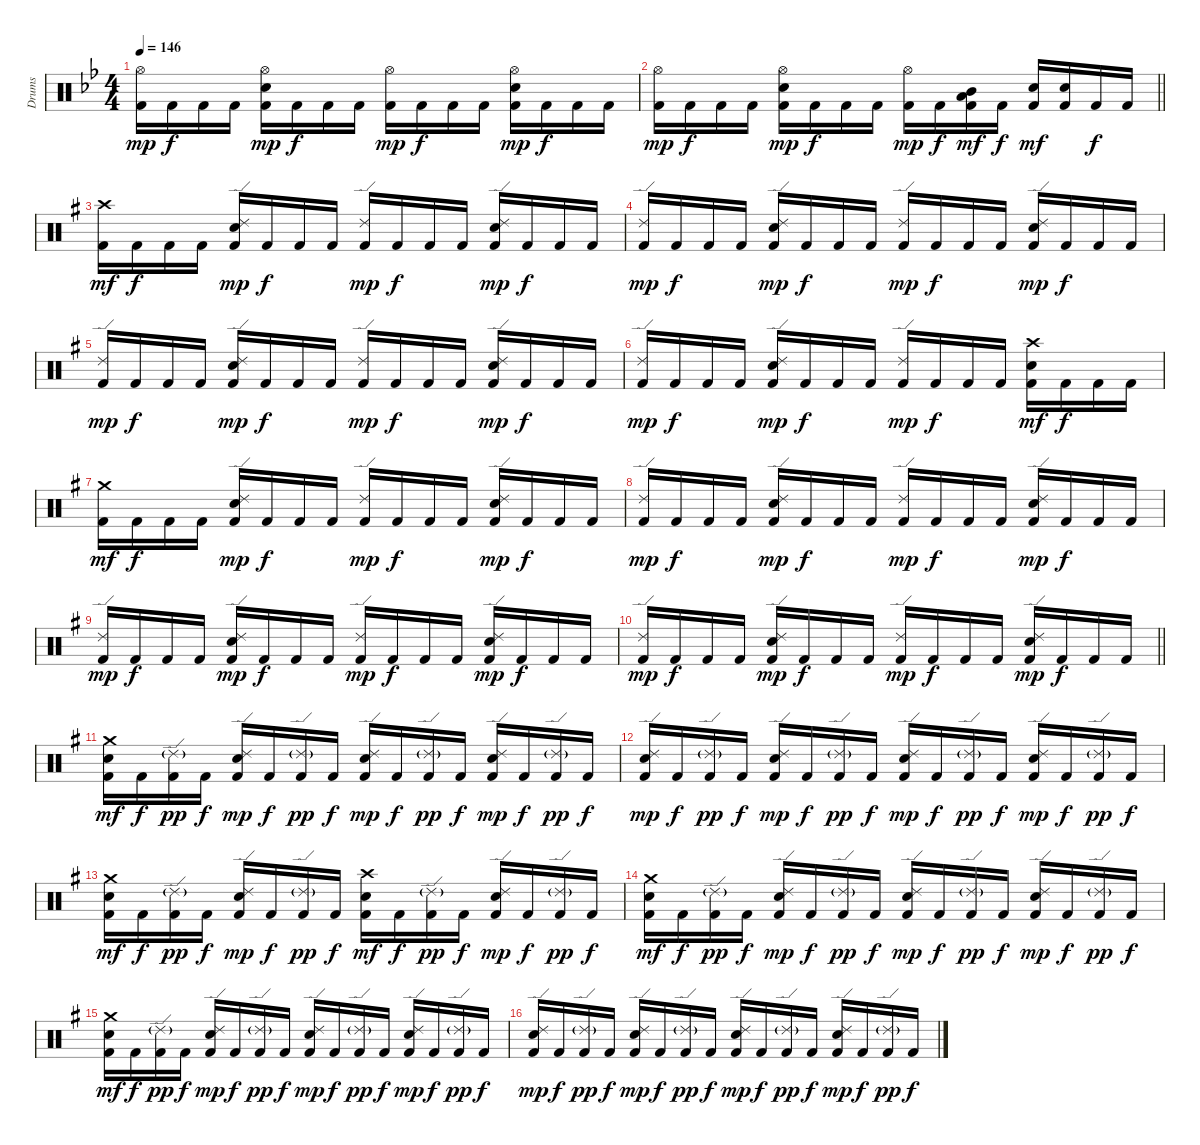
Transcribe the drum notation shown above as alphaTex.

\track ("Drums" "Drums") {instrument percussion}
\staff {score}
\articulation defaults
\ts (4 4)
\tempo 146
\clef neutral
\ks gminor
("Hi-Hat (open)" "Kick (hit) 2").16{dy mp} "Kick (hit) 2".16{dy f} "Kick (hit) 2".16 "Kick (hit) 2".16 ("Hi-Hat (open)" "Electric Snare (hit)" "Kick (hit) 2").16{dy mp} "Kick (hit) 2".16{dy f} "Kick (hit) 2".16 "Kick (hit) 2".16 ("Hi-Hat (open)" "Kick (hit) 2").16{dy mp} "Kick (hit) 2".16{dy f} "Kick (hit) 2".16 "Kick (hit) 2".16 ("Hi-Hat (open)" "Electric Snare (hit)" "Kick (hit) 2").16{dy mp} "Kick (hit) 2".16{dy f} "Kick (hit) 2".16 "Kick (hit) 2".16 |
\barLineRight lightlight
("Hi-Hat (open)" "Kick (hit) 2").16{dy mp} "Kick (hit) 2".16{dy f} "Kick (hit) 2".16 "Kick (hit) 2".16 ("Hi-Hat (open)" "Electric Snare (hit)" "Kick (hit) 2").16{dy mp} "Kick (hit) 2".16{dy f} "Kick (hit) 2".16 "Kick (hit) 2".16 ("Hi-Hat (open)" "Kick (hit) 2").16{dy mp} "Kick (hit) 2".16{dy f} ("Low Tom (hit)" "Mid Tom (hit)" "Kick (hit) 2").16{dy mf} "Kick (hit) 2".16{dy f} ("Electric Snare (hit)" "Kick (hit) 2").16{dy mf} ("Electric Snare (hit)" "Kick (hit) 2").16 "Kick (hit) 2".16{dy f} "Kick (hit) 2".16 |
\section ("" "")
\ks eminor
("Crash high (hit)" "Kick (hit) 2").16{dy mf} "Kick (hit) 2".16{dy f} "Kick (hit) 2".16 "Kick (hit) 2".16 ("Ride (edge) 2" "Electric Snare (hit)" "Kick (hit) 2").16{dy mp} "Kick (hit) 2".16{dy f} "Kick (hit) 2".16 "Kick (hit) 2".16 ("Ride (edge) 2" "Kick (hit) 2").16{dy mp} "Kick (hit) 2".16{dy f} "Kick (hit) 2".16 "Kick (hit) 2".16 ("Ride (edge) 2" "Electric Snare (hit)" "Kick (hit) 2").16{dy mp} "Kick (hit) 2".16{dy f} "Kick (hit) 2".16 "Kick (hit) 2".16 |
("Ride (edge) 2" "Kick (hit) 2").16{dy mp} "Kick (hit) 2".16{dy f} "Kick (hit) 2".16 "Kick (hit) 2".16 ("Ride (edge) 2" "Electric Snare (hit)" "Kick (hit) 2").16{dy mp} "Kick (hit) 2".16{dy f} "Kick (hit) 2".16 "Kick (hit) 2".16 ("Ride (edge) 2" "Kick (hit) 2").16{dy mp} "Kick (hit) 2".16{dy f} "Kick (hit) 2".16 "Kick (hit) 2".16 ("Ride (edge) 2" "Electric Snare (hit)" "Kick (hit) 2").16{dy mp} "Kick (hit) 2".16{dy f} "Kick (hit) 2".16 "Kick (hit) 2".16 |
("Ride (edge) 2" "Kick (hit) 2").16{dy mp} "Kick (hit) 2".16{dy f} "Kick (hit) 2".16 "Kick (hit) 2".16 ("Ride (edge) 2" "Electric Snare (hit)" "Kick (hit) 2").16{dy mp} "Kick (hit) 2".16{dy f} "Kick (hit) 2".16 "Kick (hit) 2".16 ("Ride (edge) 2" "Kick (hit) 2").16{dy mp} "Kick (hit) 2".16{dy f} "Kick (hit) 2".16 "Kick (hit) 2".16 ("Ride (edge) 2" "Electric Snare (hit)" "Kick (hit) 2").16{dy mp} "Kick (hit) 2".16{dy f} "Kick (hit) 2".16 "Kick (hit) 2".16 |
("Ride (edge) 2" "Kick (hit) 2").16{dy mp} "Kick (hit) 2".16{dy f} "Kick (hit) 2".16 "Kick (hit) 2".16 ("Ride (edge) 2" "Electric Snare (hit)" "Kick (hit) 2").16{dy mp} "Kick (hit) 2".16{dy f} "Kick (hit) 2".16 "Kick (hit) 2".16 ("Ride (edge) 2" "Kick (hit) 2").16{dy mp} "Kick (hit) 2".16{dy f} "Kick (hit) 2".16 "Kick (hit) 2".16 ("Crash high (hit)" "Electric Snare (hit)" "Kick (hit) 2").16{dy mf} "Kick (hit) 2".16{dy f} "Kick (hit) 2".16 "Kick (hit) 2".16 |
("Crash medium (hit)" "Kick (hit) 2").16{dy mf} "Kick (hit) 2".16{dy f} "Kick (hit) 2".16 "Kick (hit) 2".16 ("Ride (edge) 2" "Electric Snare (hit)" "Kick (hit) 2").16{dy mp} "Kick (hit) 2".16{dy f} "Kick (hit) 2".16 "Kick (hit) 2".16 ("Ride (edge) 2" "Kick (hit) 2").16{dy mp} "Kick (hit) 2".16{dy f} "Kick (hit) 2".16 "Kick (hit) 2".16 ("Ride (edge) 2" "Electric Snare (hit)" "Kick (hit) 2").16{dy mp} "Kick (hit) 2".16{dy f} "Kick (hit) 2".16 "Kick (hit) 2".16 |
("Ride (edge) 2" "Kick (hit) 2").16{dy mp} "Kick (hit) 2".16{dy f} "Kick (hit) 2".16 "Kick (hit) 2".16 ("Ride (edge) 2" "Electric Snare (hit)" "Kick (hit) 2").16{dy mp} "Kick (hit) 2".16{dy f} "Kick (hit) 2".16 "Kick (hit) 2".16 ("Ride (edge) 2" "Kick (hit) 2").16{dy mp} "Kick (hit) 2".16{dy f} "Kick (hit) 2".16 "Kick (hit) 2".16 ("Ride (edge) 2" "Electric Snare (hit)" "Kick (hit) 2").16{dy mp} "Kick (hit) 2".16{dy f} "Kick (hit) 2".16 "Kick (hit) 2".16 |
("Ride (edge) 2" "Kick (hit) 2").16{dy mp} "Kick (hit) 2".16{dy f} "Kick (hit) 2".16 "Kick (hit) 2".16 ("Ride (edge) 2" "Electric Snare (hit)" "Kick (hit) 2").16{dy mp} "Kick (hit) 2".16{dy f} "Kick (hit) 2".16 "Kick (hit) 2".16 ("Ride (edge) 2" "Kick (hit) 2").16{dy mp} "Kick (hit) 2".16{dy f} "Kick (hit) 2".16 "Kick (hit) 2".16 ("Ride (edge) 2" "Electric Snare (hit)" "Kick (hit) 2").16{dy mp} "Kick (hit) 2".16{dy f} "Kick (hit) 2".16 "Kick (hit) 2".16 |
\barLineRight lightlight
("Ride (edge) 2" "Kick (hit) 2").16{dy mp} "Kick (hit) 2".16{dy f} "Kick (hit) 2".16 "Kick (hit) 2".16 ("Ride (edge) 2" "Electric Snare (hit)" "Kick (hit) 2").16{dy mp} "Kick (hit) 2".16{dy f} "Kick (hit) 2".16 "Kick (hit) 2".16 ("Ride (edge) 2" "Kick (hit) 2").16{dy mp} "Kick (hit) 2".16{dy f} "Kick (hit) 2".16 "Kick (hit) 2".16 ("Ride (edge) 2" "Electric Snare (hit)" "Kick (hit) 2").16{dy mp} "Kick (hit) 2".16{dy f} "Kick (hit) 2".16 "Kick (hit) 2".16 |
\section ("" "")
("Crash medium (hit)" "Electric Snare (hit)" "Kick (hit) 2").16{dy mf} "Kick (hit) 2".16{dy f} ("Ride (edge) 2"{g} "Kick (hit) 2").16{dy pp} "Kick (hit) 2".16{dy f} ("Ride (edge) 2" "Electric Snare (hit)" "Kick (hit) 2").16{dy mp} "Kick (hit) 2".16{dy f} ("Ride (edge) 2"{g} "Kick (hit) 2").16{dy pp} "Kick (hit) 2".16{dy f} ("Ride (edge) 2" "Electric Snare (hit)" "Kick (hit) 2").16{dy mp} "Kick (hit) 2".16{dy f} ("Ride (edge) 2"{g} "Kick (hit) 2").16{dy pp} "Kick (hit) 2".16{dy f} ("Ride (edge) 2" "Electric Snare (hit)" "Kick (hit) 2").16{dy mp} "Kick (hit) 2".16{dy f} ("Ride (edge) 2"{g} "Kick (hit) 2").16{dy pp} "Kick (hit) 2".16{dy f} |
("Ride (edge) 2" "Electric Snare (hit)" "Kick (hit) 2").16{dy mp} "Kick (hit) 2".16{dy f} ("Ride (edge) 2"{g} "Kick (hit) 2").16{dy pp} "Kick (hit) 2".16{dy f} ("Ride (edge) 2" "Electric Snare (hit)" "Kick (hit) 2").16{dy mp} "Kick (hit) 2".16{dy f} ("Ride (edge) 2"{g} "Kick (hit) 2").16{dy pp} "Kick (hit) 2".16{dy f} ("Ride (edge) 2" "Electric Snare (hit)" "Kick (hit) 2").16{dy mp} "Kick (hit) 2".16{dy f} ("Ride (edge) 2"{g} "Kick (hit) 2").16{dy pp} "Kick (hit) 2".16{dy f} ("Ride (edge) 2" "Electric Snare (hit)" "Kick (hit) 2").16{dy mp} "Kick (hit) 2".16{dy f} ("Ride (edge) 2"{g} "Kick (hit) 2").16{dy pp} "Kick (hit) 2".16{dy f} |
("Crash medium (hit)" "Electric Snare (hit)" "Kick (hit) 2").16{dy mf} "Kick (hit) 2".16{dy f} ("Ride (edge) 2"{g} "Kick (hit) 2").16{dy pp} "Kick (hit) 2".16{dy f} ("Ride (edge) 2" "Electric Snare (hit)" "Kick (hit) 2").16{dy mp} "Kick (hit) 2".16{dy f} ("Ride (edge) 2"{g} "Kick (hit) 2").16{dy pp} "Kick (hit) 2".16{dy f} ("Crash high (hit)" "Electric Snare (hit)" "Kick (hit) 2").16{dy mf} "Kick (hit) 2".16{dy f} ("Ride (edge) 2"{g} "Kick (hit) 2").16{dy pp} "Kick (hit) 2".16{dy f} ("Ride (edge) 2" "Electric Snare (hit)" "Kick (hit) 2").16{dy mp} "Kick (hit) 2".16{dy f} ("Ride (edge) 2"{g} "Kick (hit) 2").16{dy pp} "Kick (hit) 2".16{dy f} |
("Crash medium (hit)" "Electric Snare (hit)" "Kick (hit) 2").16{dy mf} "Kick (hit) 2".16{dy f} ("Ride (edge) 2"{g} "Kick (hit) 2").16{dy pp} "Kick (hit) 2".16{dy f} ("Ride (edge) 2" "Electric Snare (hit)" "Kick (hit) 2").16{dy mp} "Kick (hit) 2".16{dy f} ("Ride (edge) 2"{g} "Kick (hit) 2").16{dy pp} "Kick (hit) 2".16{dy f} ("Ride (edge) 2" "Electric Snare (hit)" "Kick (hit) 2").16{dy mp} "Kick (hit) 2".16{dy f} ("Ride (edge) 2"{g} "Kick (hit) 2").16{dy pp} "Kick (hit) 2".16{dy f} ("Ride (edge) 2" "Electric Snare (hit)" "Kick (hit) 2").16{dy mp} "Kick (hit) 2".16{dy f} ("Ride (edge) 2"{g} "Kick (hit) 2").16{dy pp} "Kick (hit) 2".16{dy f} |
("Crash medium (hit)" "Electric Snare (hit)" "Kick (hit) 2").16{dy mf} "Kick (hit) 2".16{dy f} ("Ride (edge) 2"{g} "Kick (hit) 2").16{dy pp} "Kick (hit) 2".16{dy f} ("Ride (edge) 2" "Electric Snare (hit)" "Kick (hit) 2").16{dy mp} "Kick (hit) 2".16{dy f} ("Ride (edge) 2"{g} "Kick (hit) 2").16{dy pp} "Kick (hit) 2".16{dy f} ("Ride (edge) 2" "Electric Snare (hit)" "Kick (hit) 2").16{dy mp} "Kick (hit) 2".16{dy f} ("Ride (edge) 2"{g} "Kick (hit) 2").16{dy pp} "Kick (hit) 2".16{dy f} ("Ride (edge) 2" "Electric Snare (hit)" "Kick (hit) 2").16{dy mp} "Kick (hit) 2".16{dy f} ("Ride (edge) 2"{g} "Kick (hit) 2").16{dy pp} "Kick (hit) 2".16{dy f} |
("Ride (edge) 2" "Electric Snare (hit)" "Kick (hit) 2").16{dy mp} "Kick (hit) 2".16{dy f} ("Ride (edge) 2"{g} "Kick (hit) 2").16{dy pp} "Kick (hit) 2".16{dy f} ("Ride (edge) 2" "Electric Snare (hit)" "Kick (hit) 2").16{dy mp} "Kick (hit) 2".16{dy f} ("Ride (edge) 2"{g} "Kick (hit) 2").16{dy pp} "Kick (hit) 2".16{dy f} ("Ride (edge) 2" "Electric Snare (hit)" "Kick (hit) 2").16{dy mp} "Kick (hit) 2".16{dy f} ("Ride (edge) 2"{g} "Kick (hit) 2").16{dy pp} "Kick (hit) 2".16{dy f} ("Ride (edge) 2" "Electric Snare (hit)" "Kick (hit) 2").16{dy mp} "Kick (hit) 2".16{dy f} ("Ride (edge) 2"{g} "Kick (hit) 2").16{dy pp} "Kick (hit) 2".16{dy f}
